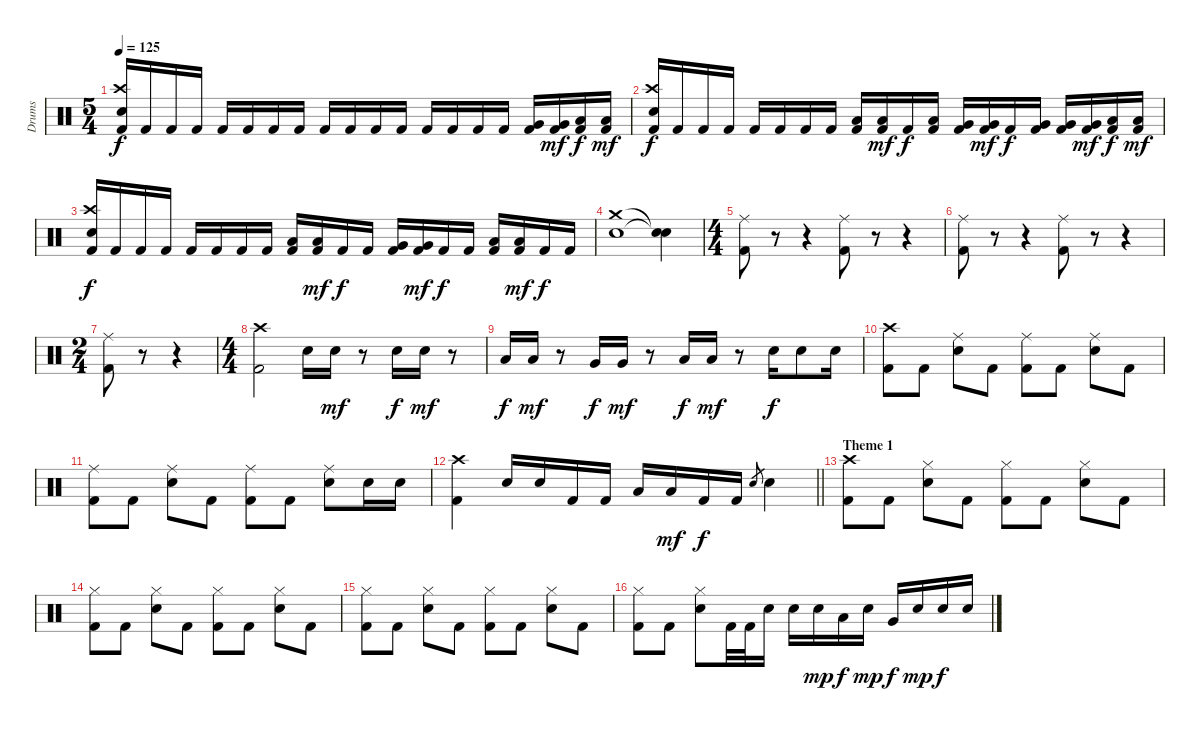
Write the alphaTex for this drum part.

\track ("Drums" "Drums") {instrument percussion}
\staff {score}
\articulation defaults
\ts (5 4)
\tempo 125
\clef neutral
\ks c
("Kick (hit) 2" "Crash high (hit)" "Electric Snare (hit)").16{dy f} "Kick (hit) 2".16 "Kick (hit) 2".16 "Kick (hit) 2".16 "Kick (hit) 2".16 "Kick (hit) 2".16 "Kick (hit) 2".16 "Kick (hit) 2".16 "Kick (hit) 2".16 "Kick (hit) 2".16 "Kick (hit) 2".16 "Kick (hit) 2".16 "Kick (hit) 2".16 "Kick (hit) 2".16 "Kick (hit) 2".16 "Kick (hit) 2".16 ("Kick (hit) 2" "Very Low Tom (hit)").16 ("Kick (hit) 2" "Very Low Tom (hit)").16{dy mf} ("Kick (hit) 2" "Low Floor Tom (hit)").16{dy f} ("Kick (hit) 2" "Low Floor Tom (hit)").16{dy mf} |
("Kick (hit) 2" "Crash high (hit)" "Electric Snare (hit)").16{dy f} "Kick (hit) 2".16 "Kick (hit) 2".16 "Kick (hit) 2".16 "Kick (hit) 2".16 "Kick (hit) 2".16 "Kick (hit) 2".16 "Kick (hit) 2".16 ("Kick (hit) 2" "Low Tom (hit)").16 ("Kick (hit) 2" "Low Tom (hit)").16{dy mf} "Kick (hit) 2".16{dy f} ("Kick (hit) 2" "Low Tom (hit)").16 ("Kick (hit) 2" "Very Low Tom (hit)").16 ("Kick (hit) 2" "Very Low Tom (hit)").16{dy mf} "Kick (hit) 2".16{dy f} ("Kick (hit) 2" "Very Low Tom (hit)").16 ("Kick (hit) 2" "Very Low Tom (hit)").16 ("Kick (hit) 2" "Very Low Tom (hit)").16{dy mf} ("Kick (hit) 2" "Low Floor Tom (hit)").16{dy f} ("Kick (hit) 2" "Low Floor Tom (hit)").16{dy mf} |
("Kick (hit) 2" "Crash high (hit)" "Electric Snare (hit)").16{dy f} "Kick (hit) 2".16 "Kick (hit) 2".16 "Kick (hit) 2".16 "Kick (hit) 2".16 "Kick (hit) 2".16 "Kick (hit) 2".16 "Kick (hit) 2".16 ("Kick (hit) 2" "Low Tom (hit)").16 ("Kick (hit) 2" "Low Tom (hit)").16{dy mf} "Kick (hit) 2".16{dy f} "Kick (hit) 2".16 ("Kick (hit) 2" "Very Low Tom (hit)").16 ("Kick (hit) 2" "Very Low Tom (hit)").16{dy mf} "Kick (hit) 2".16{dy f} "Kick (hit) 2".16 ("Kick (hit) 2" "Low Floor Tom (hit)").16 ("Kick (hit) 2" "Low Floor Tom (hit)").16{dy mf} "Kick (hit) 2".16{dy f} "Kick (hit) 2".16 |
("Crash medium (hit)" "Electric Snare (hit)").1 ("Snare (hit)"{t} "Snare (hit)"{t}).4 |
\ts (4 4)
("Kick (hit) 2" "Ride (middle)").8 r.8 r.4 ("Kick (hit) 2" "Ride (middle)").8 r.8 r.4 |
("Kick (hit) 2" "Ride (middle)").8 r.8 r.4 ("Kick (hit) 2" "Ride (middle)").8 r.8 r.4 |
\ts (2 4)
("Kick (hit) 2" "Ride (middle)").8 r.8 r.4 |
\ts (4 4)
("Kick (hit) 2" "Crash high (hit)").2 "Electric Snare (hit)".16 "Electric Snare (hit)".16{dy mf} r.8 "Electric Snare (hit)".16{dy f} "Electric Snare (hit)".16{dy mf} r.8 |
"Low Tom (hit)".16{dy f} "Low Tom (hit)".16{dy mf} r.8 "Very Low Tom (hit)".16{dy f} "Very Low Tom (hit)".16{dy mf} r.8 "Low Floor Tom (hit)".16{dy f} "Low Floor Tom (hit)".16{dy mf} r.8 "Electric Snare (hit)".16{dy f} "Electric Snare (hit)".8 "Electric Snare (hit)".16 |
("Kick (hit) 2" "Crash high (hit)").8 "Kick (hit) 2".8 ("Ride (middle)" "Electric Snare (hit)").8 "Kick (hit) 2".8 ("Kick (hit) 2" "Ride (middle)").8 "Kick (hit) 2".8 ("Ride (middle)" "Electric Snare (hit)").8 "Kick (hit) 2".8 |
("Kick (hit) 2" "Ride (middle)").8 "Kick (hit) 2".8 ("Ride (middle)" "Electric Snare (hit)").8 "Kick (hit) 2".8 ("Kick (hit) 2" "Ride (middle)").8 "Kick (hit) 2".8 ("Ride (middle)" "Electric Snare (hit)").8 "Electric Snare (hit)".16 "Electric Snare (hit)".16 |
\barLineRight lightlight
("Kick (hit) 2" "Crash high (hit)").4 "Electric Snare (hit)".16 "Electric Snare (hit)".16 "Kick (hit) 2".16 "Kick (hit) 2".16 "Low Tom (hit)".16 "Low Tom (hit)".16{dy mf} "Kick (hit) 2".16{dy f} "Kick (hit) 2".16 "Electric Snare (hit)".8{gr} "Electric Snare (hit)".4 |
\section ("" "Theme 1")
("Kick (hit) 2" "Crash high (hit)").8 "Kick (hit) 2".8 ("Hi-Hat (closed)" "Electric Snare (hit)").8 "Kick (hit) 2".8 ("Kick (hit) 2" "Hi-Hat (closed)").8 "Kick (hit) 2".8 ("Hi-Hat (closed)" "Electric Snare (hit)").8 "Kick (hit) 2".8 |
("Kick (hit) 2" "Hi-Hat (closed)").8 "Kick (hit) 2".8 ("Hi-Hat (closed)" "Electric Snare (hit)").8 "Kick (hit) 2".8 ("Kick (hit) 2" "Hi-Hat (closed)").8 "Kick (hit) 2".8 ("Hi-Hat (closed)" "Electric Snare (hit)").8 "Kick (hit) 2".8 |
("Kick (hit) 2" "Hi-Hat (closed)").8 "Kick (hit) 2".8 ("Hi-Hat (closed)" "Electric Snare (hit)").8 "Kick (hit) 2".8 ("Kick (hit) 2" "Hi-Hat (closed)").8 "Kick (hit) 2".8 ("Hi-Hat (closed)" "Electric Snare (hit)").8 "Kick (hit) 2".8 |
("Kick (hit) 2" "Hi-Hat (closed)").8 "Kick (hit) 2".8 ("Hi-Hat (closed)" "Electric Snare (hit)").8 "Kick (hit) 2".32 "Kick (hit) 2".32 "Electric Snare (hit)".16 "Electric Snare (hit)".16 "Electric Snare (hit)".16{dy mp} "Low Tom (hit)".16{dy f} "Electric Snare (hit)".16{dy mp} "Very Low Tom (hit)".16{dy f} "Electric Snare (hit)".16{dy mp} "Electric Snare (hit)".16{dy f} "Electric Snare (hit)".16
